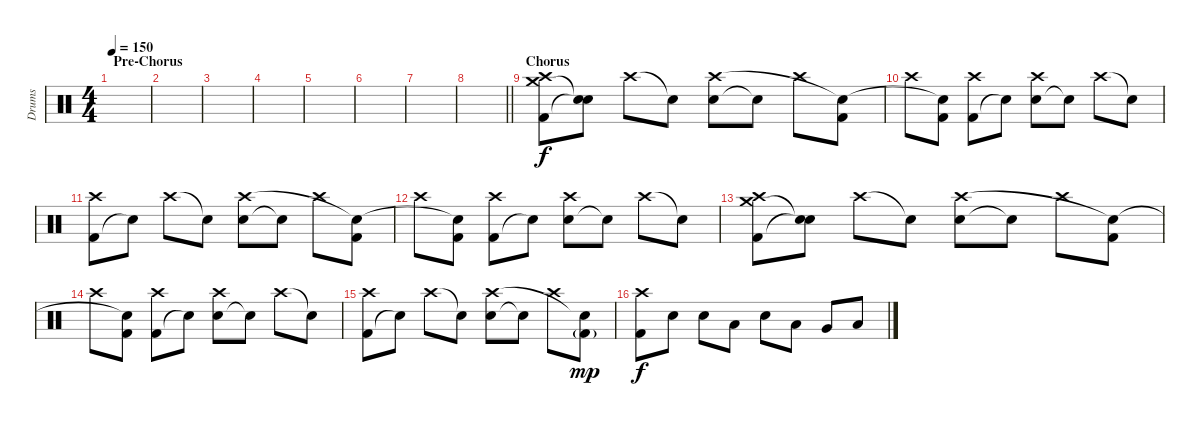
\track ("Drums" "Drums") {instrument percussion}
\staff {score}
\articulation defaults
\ts (4 4)
\section ("" "Pre-Chorus")
\tempo 150
\clef neutral
\ks c
|
|
|
|
|
|
|
\barLineRight lightlight
|
\section ("" "Chorus")
("Kick (hit) 2" "Crash medium (hit)" "Crash high (hit)").8 ("Snare (hit)"{t} "Snare (hit)"{t}).8 "Crash high (hit)".8 "Snare (hit)"{t}.8 ("Electric Snare (hit)" "Crash high (hit)").8 "Snare (hit)"{t}.8 "Crash high (hit)".8 ("Kick (hit) 2" "Snare (hit)"{t}).8 |
"Crash high (hit)".8 ("Kick (hit) 2" "Snare (hit)"{t}).8 ("Kick (hit) 2" "Crash high (hit)").8 "Snare (hit)"{t}.8 ("Electric Snare (hit)" "Crash high (hit)").8 "Snare (hit)"{t}.8 "Crash high (hit)".8 "Snare (hit)"{t}.8 |
("Kick (hit) 2" "Crash high (hit)").8 "Snare (hit)"{t}.8 "Crash high (hit)".8 "Snare (hit)"{t}.8 ("Electric Snare (hit)" "Crash high (hit)").8 "Snare (hit)"{t}.8 "Crash high (hit)".8 ("Kick (hit) 2" "Snare (hit)"{t}).8 |
"Crash high (hit)".8 ("Kick (hit) 2" "Snare (hit)"{t}).8 ("Kick (hit) 2" "Crash high (hit)").8 "Snare (hit)"{t}.8 ("Electric Snare (hit)" "Crash high (hit)").8 "Snare (hit)"{t}.8 "Crash high (hit)".8 "Snare (hit)"{t}.8 |
("Kick (hit) 2" "Crash medium (hit)" "Crash high (hit)").8 ("Snare (hit)"{t} "Snare (hit)"{t}).8 "Crash high (hit)".8 "Snare (hit)"{t}.8 ("Electric Snare (hit)" "Crash high (hit)").8 "Snare (hit)"{t}.8 "Crash high (hit)".8 ("Kick (hit) 2" "Snare (hit)"{t}).8 |
"Crash high (hit)".8 ("Kick (hit) 2" "Snare (hit)"{t}).8 ("Kick (hit) 2" "Crash high (hit)").8 "Snare (hit)"{t}.8 ("Electric Snare (hit)" "Crash high (hit)").8 "Snare (hit)"{t}.8 "Crash high (hit)".8 "Snare (hit)"{t}.8 |
("Kick (hit) 2" "Crash high (hit)").8 "Snare (hit)"{t}.8 "Crash high (hit)".8 "Snare (hit)"{t}.8 ("Electric Snare (hit)" "Crash high (hit)").8 "Snare (hit)"{t}.8 "Crash high (hit)".8 ("Kick (hit) 2"{g} "Snare (hit)"{t}).8{dy mp} |
("Kick (hit) 2" "Crash high (hit)").8{dy f} "Electric Snare (hit)".8 "Electric Snare (hit)".8 "Low Tom (hit)".8 "Electric Snare (hit)".8 "Low Tom (hit)".8 "Very Low Tom (hit)".8 "Low Floor Tom (hit)".8
